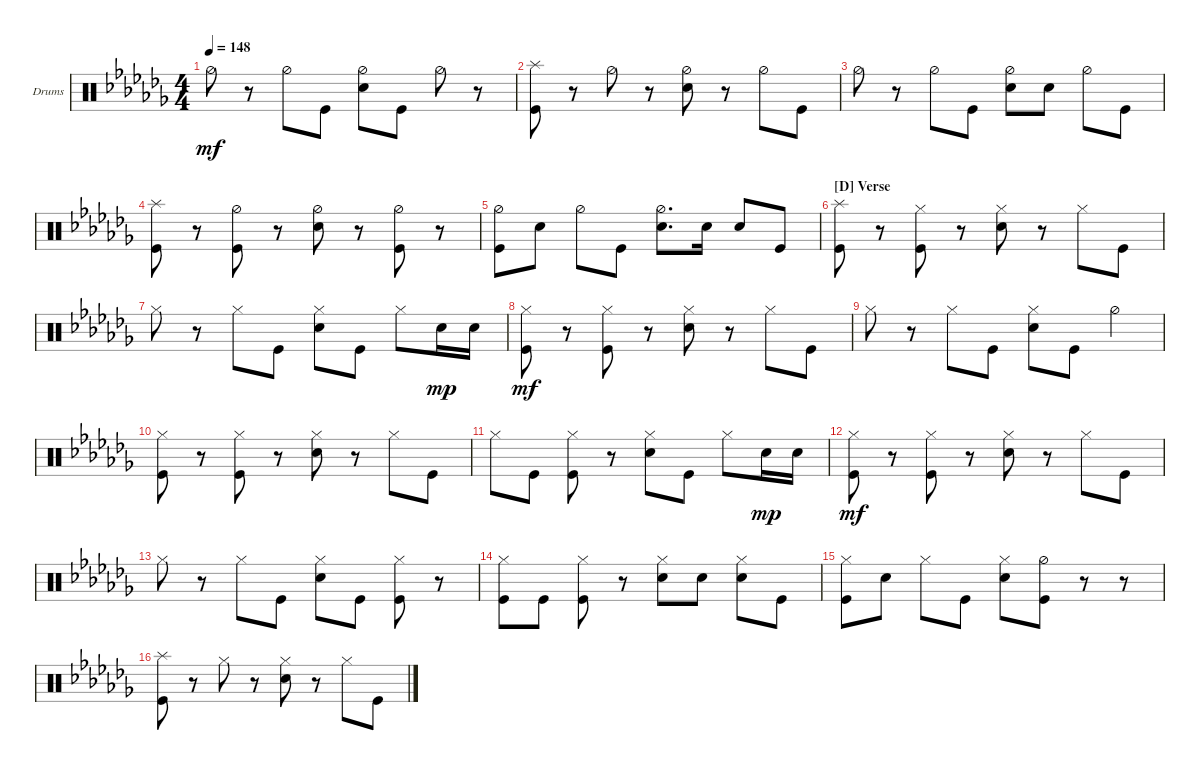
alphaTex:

\defaultSystemsLayout 4
\bracketExtendMode groupsimilarinstruments
\firstSystemTrackNameOrientation horizontal
\otherSystemsTrackNameOrientation horizontal
\track ("Drumkit" "Drums") {instrument percussion}
\staff {score}
\articulation defaults
\ts (4 4)
\tempo 148
\clef neutral
\ks abminor "Hi-Hat (half)".8{dy mf}
r.8 "Hi-Hat (half)".8 "Kick (hit)".8 ("Hi-Hat (half)" "Snare (hit) 2").8 "Kick (hit)".8 "Hi-Hat (half)".8 r.8 |
("Splash (hit)" "Kick (hit)").8 r.8 "Hi-Hat (half)".8 r.8 ("Hi-Hat (half)" "Snare (hit) 2").8 r.8 "Hi-Hat (half)".8 "Kick (hit)".8 |
"Hi-Hat (half)".8 r.8 "Hi-Hat (half)".8 "Kick (hit)".8 ("Hi-Hat (half)" "Snare (hit) 2").8 "Snare (hit) 2".8 "Hi-Hat (half)".8 "Kick (hit)".8 |
("Splash (hit)" "Kick (hit)").8 r.8 ("Hi-Hat (half)" "Kick (hit)").8 r.8 ("Hi-Hat (half)" "Snare (hit) 2").8 r.8 ("Hi-Hat (half)" "Kick (hit)").8 r.8 |
("Kick (hit)" "Hi-Hat (half)").8 "Snare (hit) 2".8 "Hi-Hat (half)".8 "Kick (hit)".8 ("Hi-Hat (half)" "Snare (hit) 2").8{d} "Snare (hit) 2".16 "Snare (hit) 2".8 "Kick (hit)".8 |
\section ("D" "Verse")
("Kick (hit)" "Splash (hit)").8 r.8 ("Kick (hit)" "Hi-Hat (closed)").8 r.8 ("Snare (hit) 2" "Hi-Hat (closed)").8 r.8 "Hi-Hat (closed)".8 "Kick (hit)".8 |
"Hi-Hat (closed)".8 r.8 "Hi-Hat (closed)".8 "Kick (hit)".8 ("Snare (hit) 2" "Hi-Hat (closed)").8 "Kick (hit)".8 "Hi-Hat (closed)".8 "Snare (hit) 2".16{dy mp} "Snare (hit) 2".16 |
("Kick (hit)" "Hi-Hat (closed)").8{dy mf} r.8 ("Kick (hit)" "Hi-Hat (closed)").8 r.8 ("Snare (hit) 2" "Hi-Hat (closed)").8 r.8 "Hi-Hat (closed)".8 "Kick (hit)".8 |
"Hi-Hat (closed)".8 r.8 "Hi-Hat (closed)".8 "Kick (hit)".8 ("Snare (hit) 2" "Hi-Hat (closed)").8 "Kick (hit)".8 "Hi-Hat (half)".4 |
("Kick (hit)" "Hi-Hat (closed)").8 r.8 ("Kick (hit)" "Hi-Hat (closed)").8 r.8 ("Snare (hit) 2" "Hi-Hat (closed)").8 r.8 "Hi-Hat (closed)".8 "Kick (hit)".8 |
"Hi-Hat (closed)".8 "Kick (hit)".8 ("Kick (hit)" "Hi-Hat (closed)").8 r.8 ("Snare (hit) 2" "Hi-Hat (closed)").8 "Kick (hit)".8 "Hi-Hat (closed)".8 "Snare (hit) 2".16{dy mp} "Snare (hit) 2".16 |
("Kick (hit)" "Hi-Hat (closed)").8{dy mf} r.8 ("Kick (hit)" "Hi-Hat (closed)").8 r.8 ("Snare (hit) 2" "Hi-Hat (closed)").8 r.8 "Hi-Hat (closed)".8 "Kick (hit)".8 |
"Hi-Hat (closed)".8 r.8 "Hi-Hat (closed)".8 "Kick (hit)".8 ("Snare (hit) 2" "Hi-Hat (closed)").8 "Kick (hit)".8 ("Hi-Hat (closed)" "Kick (hit)").8 r.8 |
("Kick (hit)" "Hi-Hat (closed)").8 "Kick (hit)".8 ("Kick (hit)" "Hi-Hat (closed)").8 r.8 ("Snare (hit) 2" "Hi-Hat (closed)").8 "Snare (hit) 2".8 ("Snare (hit) 2" "Hi-Hat (closed)").8 "Kick (hit)".8 |
("Kick (hit)" "Hi-Hat (closed)").8 "Snare (hit) 2".8 "Hi-Hat (closed)".8 "Kick (hit)".8 ("Hi-Hat (closed)" "Snare (hit) 2").8 ("Kick (hit)" "Hi-Hat (half)").8 r.8 r.8 |
("Splash (hit)" "Kick (hit)").8 r.8 "Hi-Hat (closed)".8 r.8 ("Hi-Hat (closed)" "Snare (hit) 2").8 r.8 "Hi-Hat (closed)".8 "Kick (hit)".8
